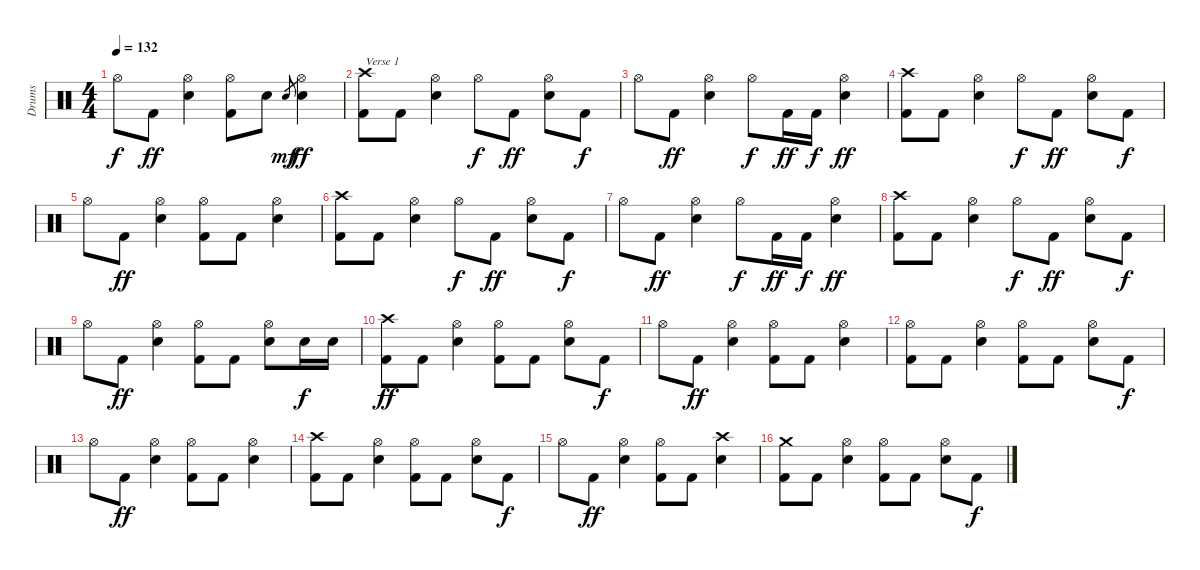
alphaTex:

\track ("Drums" "Drums") {instrument percussion}
\staff {score}
\articulation defaults
\ts (4 4)
\tempo 132
\clef neutral
\ks c "Hi-Hat (open)".8{dy f} "Kick (hit) 2".8{dy ff}
("Hi-Hat (open)" "Snare (hit) 2").4 ("Hi-Hat (open)" "Kick (hit) 2").8 "Snare (hit) 2".8 "Snare (hit) 2".8{gr dy mf} ("Hi-Hat (open)" "Snare (hit) 2").4{dy ff} |
("Crash high (hit)" "Kick (hit) 2").8{txt "Verse 1"} "Kick (hit) 2".8 ("Hi-Hat (open)" "Snare (hit) 2").4 "Hi-Hat (open)".8{dy f} "Kick (hit) 2".8{dy ff} ("Hi-Hat (open)" "Snare (hit) 2").8 "Kick (hit) 2".8{dy f} |
"Hi-Hat (open)".8 "Kick (hit) 2".8{dy ff} ("Hi-Hat (open)" "Snare (hit) 2").4 "Hi-Hat (open)".8{dy f} "Kick (hit) 2".16{dy ff} "Kick (hit) 2".16{dy f} ("Hi-Hat (open)" "Snare (hit) 2").4{dy ff} |
("Crash high (hit)" "Kick (hit) 2").8 "Kick (hit) 2".8 ("Hi-Hat (open)" "Snare (hit) 2").4 "Hi-Hat (open)".8{dy f} "Kick (hit) 2".8{dy ff} ("Hi-Hat (open)" "Snare (hit) 2").8 "Kick (hit) 2".8{dy f} |
"Hi-Hat (open)".8 "Kick (hit) 2".8{dy ff} ("Hi-Hat (open)" "Snare (hit) 2").4 ("Hi-Hat (open)" "Kick (hit) 2").8 "Kick (hit) 2".8 ("Hi-Hat (open)" "Snare (hit) 2").4 |
("Crash high (hit)" "Kick (hit) 2").8 "Kick (hit) 2".8 ("Hi-Hat (open)" "Snare (hit) 2").4 "Hi-Hat (open)".8{dy f} "Kick (hit) 2".8{dy ff} ("Hi-Hat (open)" "Snare (hit) 2").8 "Kick (hit) 2".8{dy f} |
"Hi-Hat (open)".8 "Kick (hit) 2".8{dy ff} ("Hi-Hat (open)" "Snare (hit) 2").4 "Hi-Hat (open)".8{dy f} "Kick (hit) 2".16{dy ff} "Kick (hit) 2".16{dy f} ("Hi-Hat (open)" "Snare (hit) 2").4{dy ff} |
("Crash high (hit)" "Kick (hit) 2").8 "Kick (hit) 2".8 ("Hi-Hat (open)" "Snare (hit) 2").4 "Hi-Hat (open)".8{dy f} "Kick (hit) 2".8{dy ff} ("Hi-Hat (open)" "Snare (hit) 2").8 "Kick (hit) 2".8{dy f} |
"Hi-Hat (open)".8 "Kick (hit) 2".8{dy ff} ("Hi-Hat (open)" "Snare (hit) 2").4 ("Hi-Hat (open)" "Kick (hit) 2").8 "Kick (hit) 2".8 ("Hi-Hat (open)" "Snare (hit) 2").8 "Snare (hit) 2".16{dy f} "Snare (hit) 2".16 |
("Crash high (hit)" "Kick (hit) 2").8{dy ff} "Kick (hit) 2".8 ("Hi-Hat (open)" "Snare (hit) 2").4 ("Hi-Hat (open)" "Kick (hit) 2").8 "Kick (hit) 2".8 ("Hi-Hat (open)" "Snare (hit) 2").8 "Kick (hit) 2".8{dy f} |
"Hi-Hat (open)".8 "Kick (hit) 2".8{dy ff} ("Hi-Hat (open)" "Snare (hit) 2").4 ("Hi-Hat (open)" "Kick (hit) 2").8 "Kick (hit) 2".8 ("Hi-Hat (open)" "Snare (hit) 2").4 |
("Hi-Hat (open)" "Kick (hit) 2").8 "Kick (hit) 2".8 ("Hi-Hat (open)" "Snare (hit) 2").4 ("Hi-Hat (open)" "Kick (hit) 2").8 "Kick (hit) 2".8 ("Hi-Hat (open)" "Snare (hit) 2").8 "Kick (hit) 2".8{dy f} |
"Hi-Hat (open)".8 "Kick (hit) 2".8{dy ff} ("Hi-Hat (open)" "Snare (hit) 2").4 ("Hi-Hat (open)" "Kick (hit) 2").8 "Kick (hit) 2".8 ("Hi-Hat (open)" "Snare (hit) 2").4 |
("Crash high (hit)" "Kick (hit) 2").8 "Kick (hit) 2".8 ("Hi-Hat (open)" "Snare (hit) 2").4 ("Hi-Hat (open)" "Kick (hit) 2").8 "Kick (hit) 2".8 ("Hi-Hat (open)" "Snare (hit) 2").8 "Kick (hit) 2".8{dy f} |
"Hi-Hat (open)".8 "Kick (hit) 2".8{dy ff} ("Hi-Hat (open)" "Snare (hit) 2").4 ("Hi-Hat (open)" "Kick (hit) 2").8 "Kick (hit) 2".8 ("Crash high (hit)" "Snare (hit) 2").4 |
("Crash medium (hit)" "Kick (hit) 2").8 "Kick (hit) 2".8 ("Hi-Hat (open)" "Snare (hit) 2").4 ("Hi-Hat (open)" "Kick (hit) 2").8 "Kick (hit) 2".8 ("Hi-Hat (open)" "Snare (hit) 2").8 "Kick (hit) 2".8{dy f}
